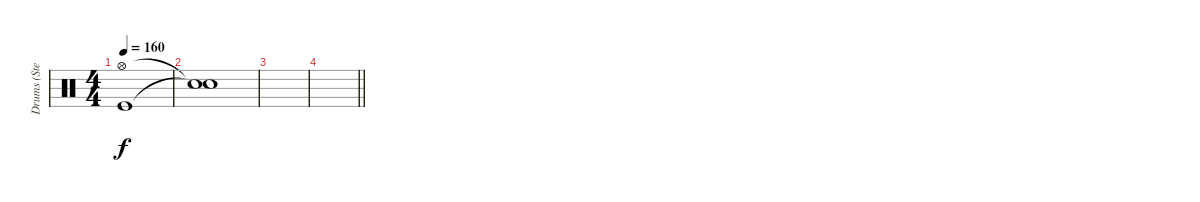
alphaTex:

\track ("Drums (Stephen Morris)" "Drums (Ste") {instrument percussion}
\staff {score}
\articulation defaults
\ts (4 4)
\tempo 160
\clef neutral
\ks c
("Hi-Hat (open)" "Kick (hit)").1{dy f} |
("Snare (hit)"{t} "Snare (hit)"{t}).1 |
|
\barLineRight lightlight
